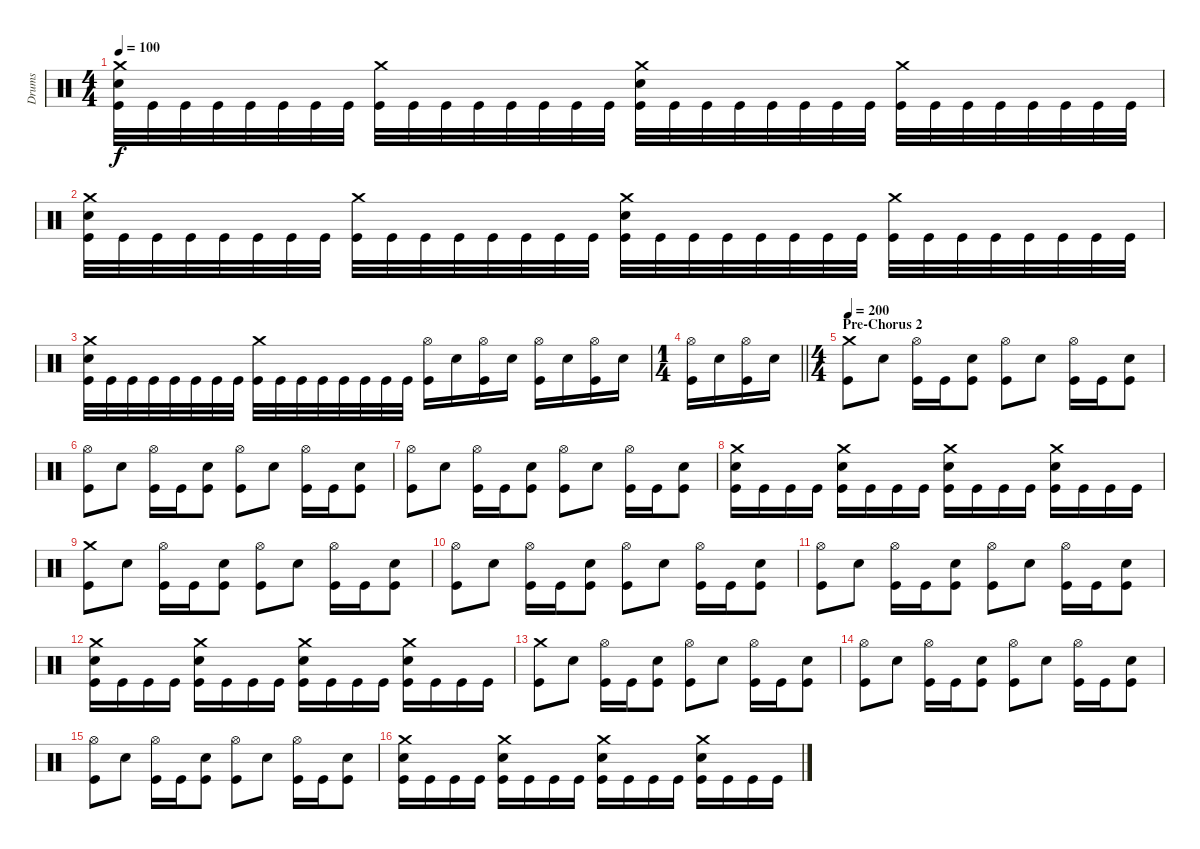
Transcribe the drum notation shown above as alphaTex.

\track ("Drums" "Drums") {instrument percussion}
\staff {score}
\articulation defaults
\ts (4 4)
\tempo 100
\clef neutral
\ks c
("Crash medium (hit)" "Snare (hit) 2" "Kick (hit)").32{dy f} "Kick (hit)".32 "Kick (hit)".32 "Kick (hit)".32 "Kick (hit)".32 "Kick (hit)".32 "Kick (hit)".32 "Kick (hit)".32 ("Crash medium (hit)" "Kick (hit)").32 "Kick (hit)".32 "Kick (hit)".32 "Kick (hit)".32 "Kick (hit)".32 "Kick (hit)".32 "Kick (hit)".32 "Kick (hit)".32 ("Crash medium (hit)" "Snare (hit) 2" "Kick (hit)").32 "Kick (hit)".32 "Kick (hit)".32 "Kick (hit)".32 "Kick (hit)".32 "Kick (hit)".32 "Kick (hit)".32 "Kick (hit)".32 ("Crash medium (hit)" "Kick (hit)").32 "Kick (hit)".32 "Kick (hit)".32 "Kick (hit)".32 "Kick (hit)".32 "Kick (hit)".32 "Kick (hit)".32 "Kick (hit)".32 |
("Crash medium (hit)" "Snare (hit) 2" "Kick (hit)").32 "Kick (hit)".32 "Kick (hit)".32 "Kick (hit)".32 "Kick (hit)".32 "Kick (hit)".32 "Kick (hit)".32 "Kick (hit)".32 ("Crash medium (hit)" "Kick (hit)").32 "Kick (hit)".32 "Kick (hit)".32 "Kick (hit)".32 "Kick (hit)".32 "Kick (hit)".32 "Kick (hit)".32 "Kick (hit)".32 ("Crash medium (hit)" "Snare (hit) 2" "Kick (hit)").32 "Kick (hit)".32 "Kick (hit)".32 "Kick (hit)".32 "Kick (hit)".32 "Kick (hit)".32 "Kick (hit)".32 "Kick (hit)".32 ("Crash medium (hit)" "Kick (hit)").32 "Kick (hit)".32 "Kick (hit)".32 "Kick (hit)".32 "Kick (hit)".32 "Kick (hit)".32 "Kick (hit)".32 "Kick (hit)".32 |
("Crash medium (hit)" "Snare (hit) 2" "Kick (hit)").32 "Kick (hit)".32 "Kick (hit)".32 "Kick (hit)".32 "Kick (hit)".32 "Kick (hit)".32 "Kick (hit)".32 "Kick (hit)".32 ("Crash medium (hit)" "Kick (hit)").32 "Kick (hit)".32 "Kick (hit)".32 "Kick (hit)".32 "Kick (hit)".32 "Kick (hit)".32 "Kick (hit)".32 "Kick (hit)".32 ("Hi-Hat (open)" "Kick (hit)").16 "Snare (hit) 2".16 ("Hi-Hat (open)" "Kick (hit)").16 "Snare (hit) 2".16 ("Hi-Hat (open)" "Kick (hit)").16 "Snare (hit) 2".16 ("Hi-Hat (open)" "Kick (hit)").16 "Snare (hit) 2".16 |
\ts (1 4)
\barLineRight lightlight
("Hi-Hat (open)" "Kick (hit)").16 "Snare (hit) 2".16 ("Hi-Hat (open)" "Kick (hit)").16 "Snare (hit) 2".16 |
\ts (4 4)
\section ("" "Pre-Chorus 2")
\tempo 200
("Crash medium (hit)" "Kick (hit)").8 "Snare (hit) 2".8 ("Hi-Hat (open)" "Kick (hit)").16 "Kick (hit)".16 ("Snare (hit) 2" "Kick (hit)").8 ("Hi-Hat (open)" "Kick (hit)").8 "Snare (hit) 2".8 ("Hi-Hat (open)" "Kick (hit)").16 "Kick (hit)".16 ("Snare (hit) 2" "Kick (hit)").8 |
("Hi-Hat (open)" "Kick (hit)").8 "Snare (hit) 2".8 ("Hi-Hat (open)" "Kick (hit)").16 "Kick (hit)".16 ("Snare (hit) 2" "Kick (hit)").8 ("Hi-Hat (open)" "Kick (hit)").8 "Snare (hit) 2".8 ("Hi-Hat (open)" "Kick (hit)").16 "Kick (hit)".16 ("Snare (hit) 2" "Kick (hit)").8 |
("Hi-Hat (open)" "Kick (hit)").8 "Snare (hit) 2".8 ("Hi-Hat (open)" "Kick (hit)").16 "Kick (hit)".16 ("Snare (hit) 2" "Kick (hit)").8 ("Hi-Hat (open)" "Kick (hit)").8 "Snare (hit) 2".8 ("Hi-Hat (open)" "Kick (hit)").16 "Kick (hit)".16 ("Snare (hit) 2" "Kick (hit)").8 |
("Crash medium (hit)" "Snare (hit) 2" "Kick (hit)").16 "Kick (hit)".16 "Kick (hit)".16 "Kick (hit)".16 ("Crash medium (hit)" "Snare (hit) 2" "Kick (hit)").16 "Kick (hit)".16 "Kick (hit)".16 "Kick (hit)".16 ("Crash medium (hit)" "Snare (hit) 2" "Kick (hit)").16 "Kick (hit)".16 "Kick (hit)".16 "Kick (hit)".16 ("Crash medium (hit)" "Snare (hit) 2" "Kick (hit)").16 "Kick (hit)".16 "Kick (hit)".16 "Kick (hit)".16 |
("Crash medium (hit)" "Kick (hit)").8 "Snare (hit) 2".8 ("Hi-Hat (open)" "Kick (hit)").16 "Kick (hit)".16 ("Snare (hit) 2" "Kick (hit)").8 ("Hi-Hat (open)" "Kick (hit)").8 "Snare (hit) 2".8 ("Hi-Hat (open)" "Kick (hit)").16 "Kick (hit)".16 ("Snare (hit) 2" "Kick (hit)").8 |
("Hi-Hat (open)" "Kick (hit)").8 "Snare (hit) 2".8 ("Hi-Hat (open)" "Kick (hit)").16 "Kick (hit)".16 ("Snare (hit) 2" "Kick (hit)").8 ("Hi-Hat (open)" "Kick (hit)").8 "Snare (hit) 2".8 ("Hi-Hat (open)" "Kick (hit)").16 "Kick (hit)".16 ("Snare (hit) 2" "Kick (hit)").8 |
("Hi-Hat (open)" "Kick (hit)").8 "Snare (hit) 2".8 ("Hi-Hat (open)" "Kick (hit)").16 "Kick (hit)".16 ("Snare (hit) 2" "Kick (hit)").8 ("Hi-Hat (open)" "Kick (hit)").8 "Snare (hit) 2".8 ("Hi-Hat (open)" "Kick (hit)").16 "Kick (hit)".16 ("Snare (hit) 2" "Kick (hit)").8 |
("Crash medium (hit)" "Snare (hit) 2" "Kick (hit)").16 "Kick (hit)".16 "Kick (hit)".16 "Kick (hit)".16 ("Crash medium (hit)" "Snare (hit) 2" "Kick (hit)").16 "Kick (hit)".16 "Kick (hit)".16 "Kick (hit)".16 ("Crash medium (hit)" "Snare (hit) 2" "Kick (hit)").16 "Kick (hit)".16 "Kick (hit)".16 "Kick (hit)".16 ("Crash medium (hit)" "Snare (hit) 2" "Kick (hit)").16 "Kick (hit)".16 "Kick (hit)".16 "Kick (hit)".16 |
("Crash medium (hit)" "Kick (hit)").8 "Snare (hit) 2".8 ("Hi-Hat (open)" "Kick (hit)").16 "Kick (hit)".16 ("Snare (hit) 2" "Kick (hit)").8 ("Hi-Hat (open)" "Kick (hit)").8 "Snare (hit) 2".8 ("Hi-Hat (open)" "Kick (hit)").16 "Kick (hit)".16 ("Snare (hit) 2" "Kick (hit)").8 |
("Hi-Hat (open)" "Kick (hit)").8 "Snare (hit) 2".8 ("Hi-Hat (open)" "Kick (hit)").16 "Kick (hit)".16 ("Snare (hit) 2" "Kick (hit)").8 ("Hi-Hat (open)" "Kick (hit)").8 "Snare (hit) 2".8 ("Hi-Hat (open)" "Kick (hit)").16 "Kick (hit)".16 ("Snare (hit) 2" "Kick (hit)").8 |
("Hi-Hat (open)" "Kick (hit)").8 "Snare (hit) 2".8 ("Hi-Hat (open)" "Kick (hit)").16 "Kick (hit)".16 ("Snare (hit) 2" "Kick (hit)").8 ("Hi-Hat (open)" "Kick (hit)").8 "Snare (hit) 2".8 ("Hi-Hat (open)" "Kick (hit)").16 "Kick (hit)".16 ("Snare (hit) 2" "Kick (hit)").8 |
("Crash medium (hit)" "Snare (hit) 2" "Kick (hit)").16 "Kick (hit)".16 "Kick (hit)".16 "Kick (hit)".16 ("Crash medium (hit)" "Snare (hit) 2" "Kick (hit)").16 "Kick (hit)".16 "Kick (hit)".16 "Kick (hit)".16 ("Crash medium (hit)" "Snare (hit) 2" "Kick (hit)").16 "Kick (hit)".16 "Kick (hit)".16 "Kick (hit)".16 ("Crash medium (hit)" "Snare (hit) 2" "Kick (hit)").16 "Kick (hit)".16 "Kick (hit)".16 "Kick (hit)".16
